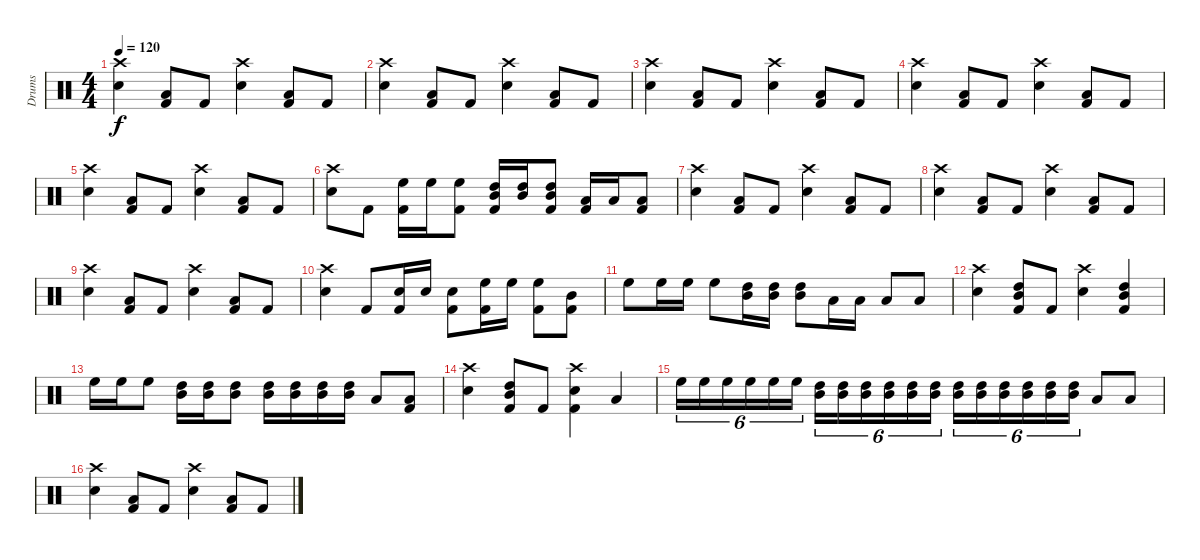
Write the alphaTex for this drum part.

\track ("Drums" "Drums") {instrument percussion}
\staff {score}
\articulation defaults
\ts (4 4)
\tempo 120
\clef neutral
\ks c
("Crash high (hit)" "Snare (hit) 2").4{dy f} ("Low Tom (hit)" "Kick (hit) 2").8 "Kick (hit) 2".8 ("Crash high (hit)" "Snare (hit) 2").4 ("Low Tom (hit)" "Kick (hit) 2").8 "Kick (hit) 2".8 |
("Crash high (hit)" "Snare (hit) 2").4 ("Low Tom (hit)" "Kick (hit) 2").8 "Kick (hit) 2".8 ("Crash high (hit)" "Snare (hit) 2").4 ("Low Tom (hit)" "Kick (hit) 2").8 "Kick (hit) 2".8 |
("Crash high (hit)" "Snare (hit) 2").4 ("Low Tom (hit)" "Kick (hit) 2").8 "Kick (hit) 2".8 ("Crash high (hit)" "Snare (hit) 2").4 ("Low Tom (hit)" "Kick (hit) 2").8 "Kick (hit) 2".8 |
("Crash high (hit)" "Snare (hit) 2").4 ("Low Tom (hit)" "Kick (hit) 2").8 "Kick (hit) 2".8 ("Crash high (hit)" "Snare (hit) 2").4 ("Low Tom (hit)" "Kick (hit) 2").8 "Kick (hit) 2".8 |
("Crash high (hit)" "Snare (hit) 2").4 ("Low Tom (hit)" "Kick (hit) 2").8 "Kick (hit) 2".8 ("Crash high (hit)" "Snare (hit) 2").4 ("Low Tom (hit)" "Kick (hit) 2").8 "Kick (hit) 2".8 |
("Crash high (hit)" "Snare (hit) 2").8 "Kick (hit) 2".8 ("High Floor Tom (hit)" "Kick (hit) 2").16 "High Floor Tom (hit)".16 ("High Floor Tom (hit)" "Kick (hit) 2").8 ("High Tom (hit)" "Mid Tom (hit)" "Kick (hit) 2").16 ("High Tom (hit)" "Mid Tom (hit)").16 ("High Tom (hit)" "Mid Tom (hit)" "Kick (hit) 2").8 ("Low Tom (hit)" "Kick (hit) 2").16 "Low Tom (hit)".16 ("Low Tom (hit)" "Kick (hit) 2").8 |
("Crash high (hit)" "Snare (hit) 2").4 ("Low Tom (hit)" "Kick (hit) 2").8 "Kick (hit) 2".8 ("Crash high (hit)" "Snare (hit) 2").4 ("Low Tom (hit)" "Kick (hit) 2").8 "Kick (hit) 2".8 |
("Crash high (hit)" "Snare (hit) 2").4 ("Low Tom (hit)" "Kick (hit) 2").8 "Kick (hit) 2".8 ("Crash high (hit)" "Snare (hit) 2").4 ("Low Tom (hit)" "Kick (hit) 2").8 "Kick (hit) 2".8 |
("Crash high (hit)" "Snare (hit) 2").4 ("Low Tom (hit)" "Kick (hit) 2").8 "Kick (hit) 2".8 ("Crash high (hit)" "Snare (hit) 2").4 ("Low Tom (hit)" "Kick (hit) 2").8 "Kick (hit) 2".8 |
("Crash high (hit)" "Snare (hit) 2").4 "Kick (hit) 2".8 ("Snare (hit) 2" "Kick (hit) 2").16 "Snare (hit) 2".16 ("Snare (hit) 2" "Kick (hit) 2").8 ("High Floor Tom (hit)" "Kick (hit) 2").16 "High Floor Tom (hit)".16 ("High Floor Tom (hit)" "Kick (hit) 2").8 ("Mid Tom (hit)" "Kick (hit) 2").8 |
"High Floor Tom (hit)".8 "High Floor Tom (hit)".16 "High Floor Tom (hit)".16 "High Floor Tom (hit)".8 ("High Tom (hit)" "Mid Tom (hit)").16 ("High Tom (hit)" "Mid Tom (hit)").16 ("High Tom (hit)" "Mid Tom (hit)").8 "Low Tom (hit)".16 "Low Tom (hit)".16 "Low Tom (hit)".8 "Low Tom (hit)".8 |
("Crash high (hit)" "Snare (hit) 2").4 ("High Tom (hit)" "Mid Tom (hit)" "Kick (hit) 2").8 "Kick (hit) 2".8 ("Crash high (hit)" "Snare (hit) 2").4 ("High Tom (hit)" "Mid Tom (hit)" "Kick (hit) 2").4 |
"High Floor Tom (hit)".16 "High Floor Tom (hit)".16 "High Floor Tom (hit)".8 ("High Tom (hit)" "Mid Tom (hit)").16 ("High Tom (hit)" "Mid Tom (hit)").16 ("High Tom (hit)" "Mid Tom (hit)").8 ("High Tom (hit)" "Mid Tom (hit)").16 ("High Tom (hit)" "Mid Tom (hit)").16 ("High Tom (hit)" "Mid Tom (hit)").16 ("High Tom (hit)" "Mid Tom (hit)").16 "Low Tom (hit)".8 ("Low Tom (hit)" "Kick (hit) 2").8 |
("Crash high (hit)" "Snare (hit) 2").4 ("High Tom (hit)" "Mid Tom (hit)" "Kick (hit) 2").8 "Kick (hit) 2".8 ("Crash high (hit)" "Snare (hit) 2" "Kick (hit) 2").4 "Low Tom (hit)".4 |
"High Floor Tom (hit)".16{tu (6 4)} "High Floor Tom (hit)".16{tu (6 4)} "High Floor Tom (hit)".16{tu (6 4)} "High Floor Tom (hit)".16{tu (6 4)} "High Floor Tom (hit)".16{tu (6 4)} "High Floor Tom (hit)".16{tu (6 4)} ("High Tom (hit)" "Mid Tom (hit)").16{tu (6 4)} ("High Tom (hit)" "Mid Tom (hit)").16{tu (6 4)} ("High Tom (hit)" "Mid Tom (hit)").16{tu (6 4)} ("High Tom (hit)" "Mid Tom (hit)").16{tu (6 4)} ("High Tom (hit)" "Mid Tom (hit)").16{tu (6 4)} ("High Tom (hit)" "Mid Tom (hit)").16{tu (6 4)} ("High Tom (hit)" "Mid Tom (hit)").16{tu (6 4)} ("High Tom (hit)" "Mid Tom (hit)").16{tu (6 4)} ("High Tom (hit)" "Mid Tom (hit)").16{tu (6 4)} ("High Tom (hit)" "Mid Tom (hit)").16{tu (6 4)} ("High Tom (hit)" "Mid Tom (hit)").16{tu (6 4)} ("High Tom (hit)" "Mid Tom (hit)").16{tu (6 4)} "Low Tom (hit)".8 "Low Tom (hit)".8 |
("Crash high (hit)" "Snare (hit) 2").4 ("Low Tom (hit)" "Kick (hit) 2").8 "Kick (hit) 2".8 ("Crash high (hit)" "Snare (hit) 2").4 ("Low Tom (hit)" "Kick (hit) 2").8 "Kick (hit) 2".8
